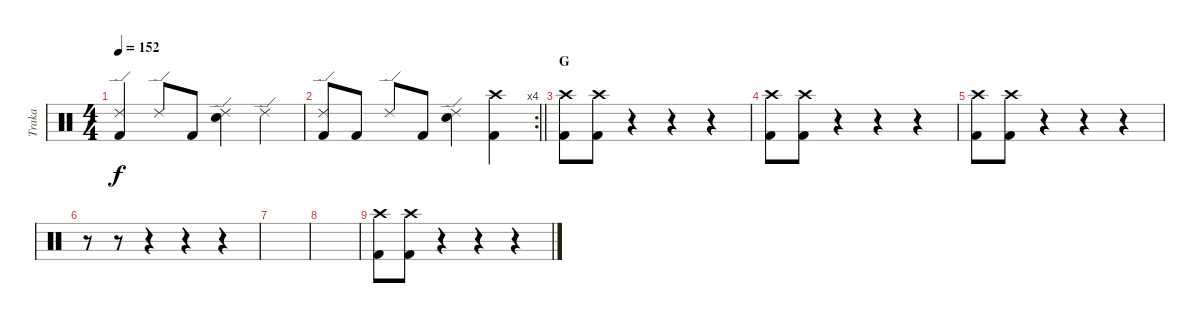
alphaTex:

\track ("Traka" "Traka") {instrument percussion}
\staff {score}
\articulation defaults
\ts (4 4)
\tempo 152
\clef neutral
\ks c
("Ride (edge) 2" "Kick (hit) 2").4{dy f} "Ride (edge) 2".8 "Kick (hit) 2".8 ("Ride (edge) 2" "Electric Snare (hit)").4 "Ride (edge) 2".4 |
\rc 4
\barLineRight lightlight
("Ride (edge) 2" "Kick (hit) 2").8 "Kick (hit) 2".8 "Ride (edge) 2".8 "Kick (hit) 2".8 ("Ride (edge) 2" "Electric Snare (hit)").4 ("Crash high (hit)" "Kick (hit) 2").4 |
\section ("" "G")
("Crash high (hit)" "Kick (hit) 2").8 ("Crash high (hit)" "Kick (hit) 2").8 r.4 r.4 r.4 |
("Crash high (hit)" "Kick (hit) 2").8 ("Crash high (hit)" "Kick (hit) 2").8 r.4 r.4 r.4 |
("Crash high (hit)" "Kick (hit) 2").8 ("Crash high (hit)" "Kick (hit) 2").8 r.4 r.4 r.4 |
r.8 r.8 r.4 r.4 r.4 |
|
|
("Crash high (hit)" "Kick (hit) 2").8 ("Crash high (hit)" "Kick (hit) 2").8 r.4 r.4 r.4
